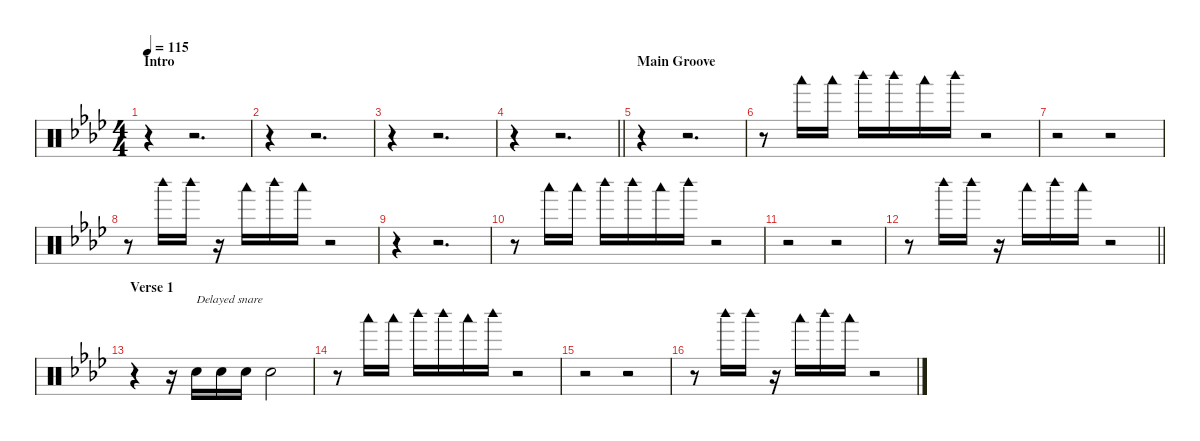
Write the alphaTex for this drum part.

\defaultSystemsLayout 4
\hideDynamics
\bracketExtendMode nobrackets
\singleTrackTrackNamePolicy hidden
\multiTrackTrackNamePolicy hidden
\firstSystemTrackNameMode fullname
\firstSystemTrackNameOrientation horizontal
\otherSystemsTrackNameOrientation horizontal
\track ("Percussion" "drm.") {instrument percussion}
\staff {score}
\articulation defaults
\ts (4 4)
\section ("" "Intro")
\tempo 115
\clef neutral
\ks ab
r.4{dy mp beam Down} r.2{d beam Down} |
r.4{beam Down} r.2{d beam Down} |
r.4{beam Down} r.2{d beam Down} |
\barLineRight lightlight
r.4{beam Down} r.2{d beam Down} |
\section ("" "Main Groove")
r.4{beam Down} r.2{d beam Down} |
r.8{beam Down} "Woodblock low (hit)"{acc forcenatural}.16{beam Down} "Woodblock low (hit)"{acc forcenatural}.16{beam Down} "Woodblock high (hit)"{acc forcenatural}.16{beam Down} "Woodblock high (hit)"{acc forcenatural}.16{beam Down} "Woodblock low (hit)"{acc forcenatural}.16{dy f beam Down} "Woodblock high (hit)"{acc forcenatural}.16{dy mp beam Down} r.2{beam Down} |
r.2{beam Down} r.2{beam Down} |
r.8{beam Down} "Woodblock high (hit)"{acc forcenatural}.16{beam Down} "Woodblock high (hit)"{acc forcenatural}.16{beam Down} r.16{beam Down} "Woodblock low (hit)"{acc forcenatural}.16{beam Down} "Woodblock high (hit)"{acc forcenatural}.16{beam Down} "Woodblock low (hit)"{acc forcenatural}.16{beam Down} r.2{beam Down} |
r.4{beam Down} r.2{d beam Down} |
r.8{beam Down} "Woodblock low (hit)"{acc forcenatural}.16{beam Down} "Woodblock low (hit)"{acc forcenatural}.16{beam Down} "Woodblock high (hit)"{acc forcenatural}.16{beam Down} "Woodblock high (hit)"{acc forcenatural}.16{beam Down} "Woodblock low (hit)"{acc forcenatural}.16{dy f beam Down} "Woodblock high (hit)"{acc forcenatural}.16{dy mp beam Down} r.2{beam Down} |
r.2{beam Down} r.2{beam Down} |
\barLineRight lightlight
r.8{beam Down} "Woodblock high (hit)"{acc forcenatural}.16{beam Down} "Woodblock high (hit)"{acc forcenatural}.16{beam Down} r.16{beam Down} "Woodblock low (hit)"{acc forcenatural}.16{beam Down} "Woodblock high (hit)"{acc forcenatural}.16{beam Down} "Woodblock low (hit)"{acc forcenatural}.16{beam Down} r.2{beam Down} |
\section ("" "Verse 1")
r.4{beam Down} r.16{beam Down} "Snare (hit) 2"{acc forcenatural}.16{txt "Delayed snare" dy pp beam Down} "Snare (hit) 2"{acc forcenatural}.16{dy p beam Down} "Snare (hit) 2"{acc forcenatural}.16{dy pp beam Down} "Snare (hit) 2"{acc forcenatural}.2{dy p beam Down} |
r.8{beam Down} "Woodblock low (hit)"{acc forcenatural}.16{dy mp beam Down} "Woodblock low (hit)"{acc forcenatural}.16{beam Down} "Woodblock high (hit)"{acc forcenatural}.16{beam Down} "Woodblock high (hit)"{acc forcenatural}.16{beam Down} "Woodblock low (hit)"{acc forcenatural}.16{dy f beam Down} "Woodblock high (hit)"{acc forcenatural}.16{dy mp beam Down} r.2{beam Down} |
r.2{beam Down} r.2{beam Down} |
r.8{beam Down} "Woodblock high (hit)"{acc forcenatural}.16{beam Down} "Woodblock high (hit)"{acc forcenatural}.16{beam Down} r.16{beam Down} "Woodblock low (hit)"{acc forcenatural}.16{beam Down} "Woodblock high (hit)"{acc forcenatural}.16{beam Down} "Woodblock low (hit)"{acc forcenatural}.16{beam Down} r.2{beam Down}
